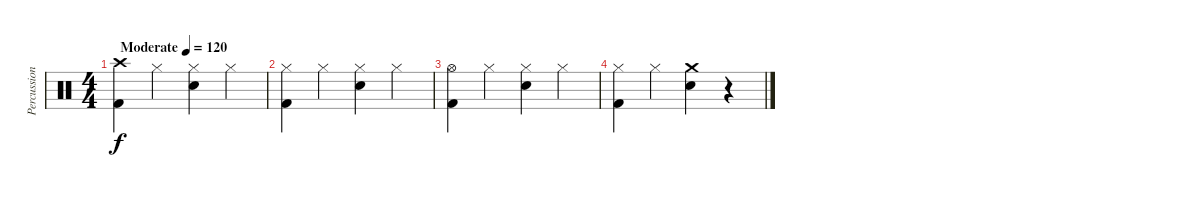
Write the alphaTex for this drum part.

\track ("Percussion" "Percussion") {instrument percussion}
\staff {score}
\articulation defaults
\ts (4 4)
\tempo (120 "Moderate")
\clef neutral
\ks c
("Crash high (hit)" "Kick (hit) 2").4{dy f} "Hi-Hat (closed)".4 ("Hi-Hat (closed)" "Snare (hit) 2").4 "Hi-Hat (closed)".4 |
("Hi-Hat (closed)" "Kick (hit) 2").4 "Hi-Hat (closed)".4 ("Hi-Hat (closed)" "Snare (hit) 2").4 "Hi-Hat (closed)".4 |
("Hi-Hat (open)" "Kick (hit) 2").4 "Hi-Hat (closed)".4 ("Hi-Hat (closed)" "Snare (hit) 2").4 "Hi-Hat (closed)".4 |
("Hi-Hat (closed)" "Kick (hit) 2").4 "Hi-Hat (closed)".4 ("Crash medium (hit)" "Snare (hit) 2").4 r.4
